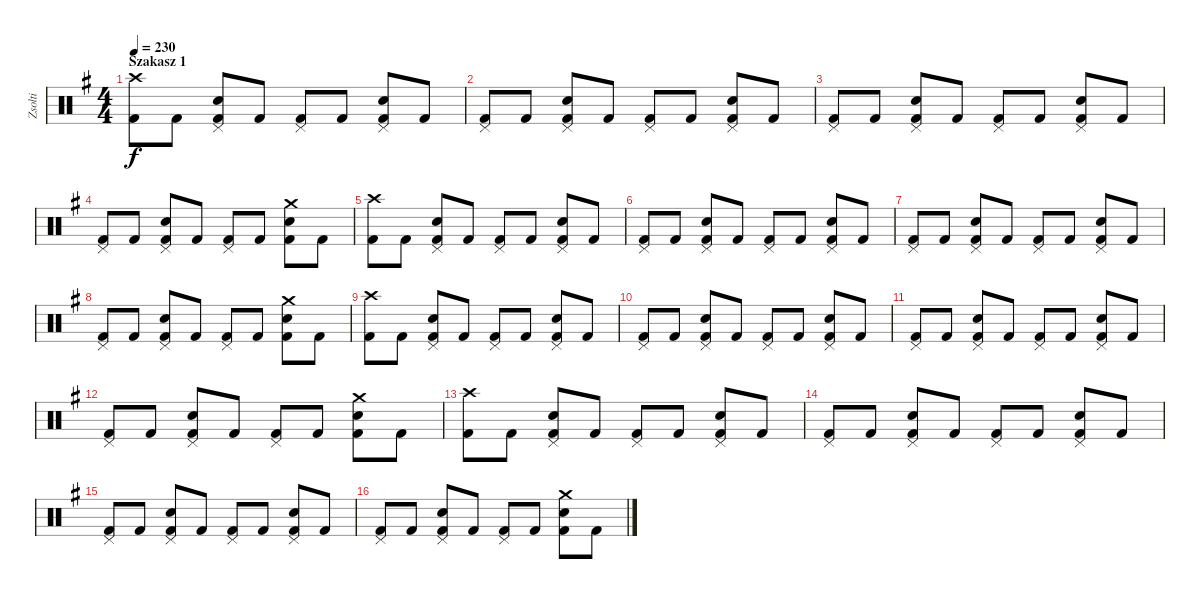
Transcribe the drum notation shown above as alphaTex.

\track ("Zsolti" "Zsolti") {instrument percussion}
\staff {score}
\articulation defaults
\ts (4 4)
\section ("" "Szakasz 1")
\tempo 230
\clef neutral
\ks eminor
("Crash high (hit)" "Kick (hit) 2").8{dy f} "Kick (hit) 2".8 ("Pedal Hi-Hat (hit)" "Snare (hit) 2" "Kick (hit) 2").8 "Kick (hit) 2".8 ("Pedal Hi-Hat (hit)" "Kick (hit) 2").8 "Kick (hit) 2".8 ("Pedal Hi-Hat (hit)" "Snare (hit) 2" "Kick (hit) 2").8 "Kick (hit) 2".8 |
("Pedal Hi-Hat (hit)" "Kick (hit) 2").8 "Kick (hit) 2".8 ("Pedal Hi-Hat (hit)" "Snare (hit) 2" "Kick (hit) 2").8 "Kick (hit) 2".8 ("Pedal Hi-Hat (hit)" "Kick (hit) 2").8 "Kick (hit) 2".8 ("Pedal Hi-Hat (hit)" "Snare (hit) 2" "Kick (hit) 2").8 "Kick (hit) 2".8 |
("Pedal Hi-Hat (hit)" "Kick (hit) 2").8 "Kick (hit) 2".8 ("Pedal Hi-Hat (hit)" "Snare (hit) 2" "Kick (hit) 2").8 "Kick (hit) 2".8 ("Pedal Hi-Hat (hit)" "Kick (hit) 2").8 "Kick (hit) 2".8 ("Pedal Hi-Hat (hit)" "Snare (hit) 2" "Kick (hit) 2").8 "Kick (hit) 2".8 |
("Pedal Hi-Hat (hit)" "Kick (hit) 2").8 "Kick (hit) 2".8 ("Pedal Hi-Hat (hit)" "Snare (hit) 2" "Kick (hit) 2").8 "Kick (hit) 2".8 ("Pedal Hi-Hat (hit)" "Kick (hit) 2").8 "Kick (hit) 2".8 ("Crash medium (hit)" "Snare (hit) 2" "Kick (hit) 2").8 "Kick (hit) 2".8 |
("Crash high (hit)" "Kick (hit) 2").8 "Kick (hit) 2".8 ("Pedal Hi-Hat (hit)" "Snare (hit) 2" "Kick (hit) 2").8 "Kick (hit) 2".8 ("Pedal Hi-Hat (hit)" "Kick (hit) 2").8 "Kick (hit) 2".8 ("Pedal Hi-Hat (hit)" "Snare (hit) 2" "Kick (hit) 2").8 "Kick (hit) 2".8 |
("Pedal Hi-Hat (hit)" "Kick (hit) 2").8 "Kick (hit) 2".8 ("Pedal Hi-Hat (hit)" "Snare (hit) 2" "Kick (hit) 2").8 "Kick (hit) 2".8 ("Pedal Hi-Hat (hit)" "Kick (hit) 2").8 "Kick (hit) 2".8 ("Pedal Hi-Hat (hit)" "Snare (hit) 2" "Kick (hit) 2").8 "Kick (hit) 2".8 |
("Pedal Hi-Hat (hit)" "Kick (hit) 2").8 "Kick (hit) 2".8 ("Pedal Hi-Hat (hit)" "Snare (hit) 2" "Kick (hit) 2").8 "Kick (hit) 2".8 ("Pedal Hi-Hat (hit)" "Kick (hit) 2").8 "Kick (hit) 2".8 ("Pedal Hi-Hat (hit)" "Snare (hit) 2" "Kick (hit) 2").8 "Kick (hit) 2".8 |
("Pedal Hi-Hat (hit)" "Kick (hit) 2").8 "Kick (hit) 2".8 ("Pedal Hi-Hat (hit)" "Snare (hit) 2" "Kick (hit) 2").8 "Kick (hit) 2".8 ("Pedal Hi-Hat (hit)" "Kick (hit) 2").8 "Kick (hit) 2".8 ("Crash medium (hit)" "Snare (hit) 2" "Kick (hit) 2").8 "Kick (hit) 2".8 |
("Crash high (hit)" "Kick (hit) 2").8 "Kick (hit) 2".8 ("Pedal Hi-Hat (hit)" "Snare (hit) 2" "Kick (hit) 2").8 "Kick (hit) 2".8 ("Pedal Hi-Hat (hit)" "Kick (hit) 2").8 "Kick (hit) 2".8 ("Pedal Hi-Hat (hit)" "Snare (hit) 2" "Kick (hit) 2").8 "Kick (hit) 2".8 |
("Pedal Hi-Hat (hit)" "Kick (hit) 2").8 "Kick (hit) 2".8 ("Pedal Hi-Hat (hit)" "Snare (hit) 2" "Kick (hit) 2").8 "Kick (hit) 2".8 ("Pedal Hi-Hat (hit)" "Kick (hit) 2").8 "Kick (hit) 2".8 ("Pedal Hi-Hat (hit)" "Snare (hit) 2" "Kick (hit) 2").8 "Kick (hit) 2".8 |
("Pedal Hi-Hat (hit)" "Kick (hit) 2").8 "Kick (hit) 2".8 ("Pedal Hi-Hat (hit)" "Snare (hit) 2" "Kick (hit) 2").8 "Kick (hit) 2".8 ("Pedal Hi-Hat (hit)" "Kick (hit) 2").8 "Kick (hit) 2".8 ("Pedal Hi-Hat (hit)" "Snare (hit) 2" "Kick (hit) 2").8 "Kick (hit) 2".8 |
("Pedal Hi-Hat (hit)" "Kick (hit) 2").8 "Kick (hit) 2".8 ("Pedal Hi-Hat (hit)" "Snare (hit) 2" "Kick (hit) 2").8 "Kick (hit) 2".8 ("Pedal Hi-Hat (hit)" "Kick (hit) 2").8 "Kick (hit) 2".8 ("Crash medium (hit)" "Snare (hit) 2" "Kick (hit) 2").8 "Kick (hit) 2".8 |
("Crash high (hit)" "Kick (hit) 2").8 "Kick (hit) 2".8 ("Pedal Hi-Hat (hit)" "Snare (hit) 2" "Kick (hit) 2").8 "Kick (hit) 2".8 ("Pedal Hi-Hat (hit)" "Kick (hit) 2").8 "Kick (hit) 2".8 ("Pedal Hi-Hat (hit)" "Snare (hit) 2" "Kick (hit) 2").8 "Kick (hit) 2".8 |
("Pedal Hi-Hat (hit)" "Kick (hit) 2").8 "Kick (hit) 2".8 ("Pedal Hi-Hat (hit)" "Snare (hit) 2" "Kick (hit) 2").8 "Kick (hit) 2".8 ("Pedal Hi-Hat (hit)" "Kick (hit) 2").8 "Kick (hit) 2".8 ("Pedal Hi-Hat (hit)" "Snare (hit) 2" "Kick (hit) 2").8 "Kick (hit) 2".8 |
("Pedal Hi-Hat (hit)" "Kick (hit) 2").8 "Kick (hit) 2".8 ("Pedal Hi-Hat (hit)" "Snare (hit) 2" "Kick (hit) 2").8 "Kick (hit) 2".8 ("Pedal Hi-Hat (hit)" "Kick (hit) 2").8 "Kick (hit) 2".8 ("Pedal Hi-Hat (hit)" "Snare (hit) 2" "Kick (hit) 2").8 "Kick (hit) 2".8 |
("Pedal Hi-Hat (hit)" "Kick (hit) 2").8 "Kick (hit) 2".8 ("Pedal Hi-Hat (hit)" "Snare (hit) 2" "Kick (hit) 2").8 "Kick (hit) 2".8 ("Pedal Hi-Hat (hit)" "Kick (hit) 2").8 "Kick (hit) 2".8 ("Crash medium (hit)" "Snare (hit) 2" "Kick (hit) 2").8 "Kick (hit) 2".8
